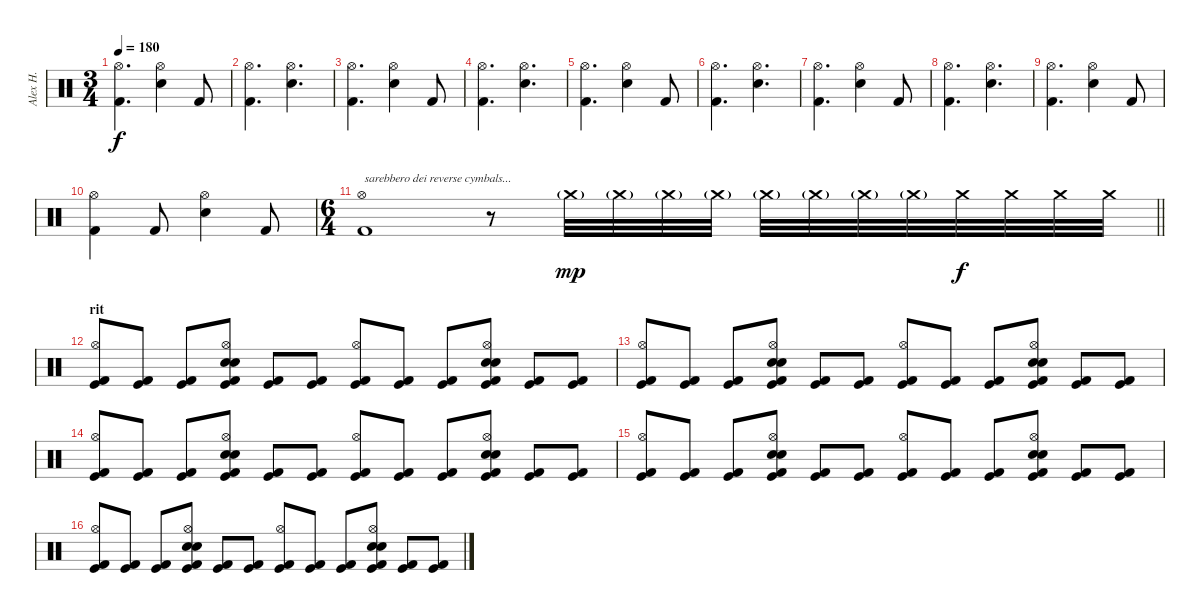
\track ("Alex H." "Alex H.") {instrument percussion}
\staff {score}
\articulation defaults
\ts (3 4)
\tempo 180
\clef neutral
\ks c
("Kick (hit) 2" "Hi-Hat (open)").4{d dy f} ("Electric Snare (hit)" "Hi-Hat (open)").4 "Kick (hit) 2".8 |
("Kick (hit) 2" "Hi-Hat (open)").4{d} ("Electric Snare (hit)" "Hi-Hat (open)").4{d} |
("Kick (hit) 2" "Hi-Hat (open)").4{d} ("Electric Snare (hit)" "Hi-Hat (open)").4 "Kick (hit) 2".8 |
("Kick (hit) 2" "Hi-Hat (open)").4{d} ("Electric Snare (hit)" "Hi-Hat (open)").4{d} |
("Kick (hit) 2" "Hi-Hat (open)").4{d} ("Electric Snare (hit)" "Hi-Hat (open)").4 "Kick (hit) 2".8 |
("Kick (hit) 2" "Hi-Hat (open)").4{d} ("Electric Snare (hit)" "Hi-Hat (open)").4{d} |
("Kick (hit) 2" "Hi-Hat (open)").4{d} ("Electric Snare (hit)" "Hi-Hat (open)").4 "Kick (hit) 2".8 |
("Kick (hit) 2" "Hi-Hat (open)").4{d} ("Electric Snare (hit)" "Hi-Hat (open)").4{d} |
("Kick (hit) 2" "Hi-Hat (open)").4{d} ("Electric Snare (hit)" "Hi-Hat (open)").4 "Kick (hit) 2".8 |
("Kick (hit) 2" "Hi-Hat (open)").4 "Kick (hit) 2".8 ("Electric Snare (hit)" "Hi-Hat (open)").4 "Kick (hit) 2".8 |
\ts (6 4)
\barLineRight lightlight
("Kick (hit) 2" "Hi-Hat (open)").1{txt "sarebbero dei reverse cymbals..."} r.8 "Crash medium (hit)"{g}.32{dy mp} "Crash medium (hit)"{g}.32 "Crash medium (hit)"{g}.32 "Crash medium (hit)"{g}.32 "Crash medium (hit)"{g}.32 "Crash medium (hit)"{g}.32 "Crash medium (hit)"{g}.32 "Crash medium (hit)"{g}.32 "Crash medium (hit)".32{dy f} "Crash medium (hit)".32 "Crash medium (hit)".32 "Crash medium (hit)".32 |
\section ("" "rit")
("Kick (hit) 2" "Kick (hit)" "Hi-Hat (open)").8 ("Kick (hit) 2" "Kick (hit)").8 ("Kick (hit) 2" "Kick (hit)").8 ("Kick (hit) 2" "Kick (hit)" "Snare (hit) 2" "Hi-Hat (open)" "Electric Snare (hit)").8 ("Kick (hit) 2" "Kick (hit)").8 ("Kick (hit) 2" "Kick (hit)").8 ("Kick (hit) 2" "Kick (hit)" "Hi-Hat (open)").8 ("Kick (hit) 2" "Kick (hit)").8 ("Kick (hit) 2" "Kick (hit)").8 ("Kick (hit) 2" "Kick (hit)" "Snare (hit) 2" "Electric Snare (hit)" "Hi-Hat (open)").8 ("Kick (hit) 2" "Kick (hit)").8 ("Kick (hit) 2" "Kick (hit)").8 |
("Kick (hit) 2" "Kick (hit)" "Hi-Hat (open)").8 ("Kick (hit) 2" "Kick (hit)").8 ("Kick (hit) 2" "Kick (hit)").8 ("Kick (hit) 2" "Kick (hit)" "Snare (hit) 2" "Hi-Hat (open)" "Electric Snare (hit)").8 ("Kick (hit) 2" "Kick (hit)").8 ("Kick (hit) 2" "Kick (hit)").8 ("Kick (hit) 2" "Kick (hit)" "Hi-Hat (open)").8 ("Kick (hit) 2" "Kick (hit)").8 ("Kick (hit) 2" "Kick (hit)").8 ("Kick (hit) 2" "Kick (hit)" "Snare (hit) 2" "Electric Snare (hit)" "Hi-Hat (open)").8 ("Kick (hit) 2" "Kick (hit)").8 ("Kick (hit) 2" "Kick (hit)").8 |
("Kick (hit) 2" "Kick (hit)" "Hi-Hat (open)").8 ("Kick (hit) 2" "Kick (hit)").8 ("Kick (hit) 2" "Kick (hit)").8 ("Kick (hit) 2" "Kick (hit)" "Snare (hit) 2" "Hi-Hat (open)" "Electric Snare (hit)").8 ("Kick (hit) 2" "Kick (hit)").8 ("Kick (hit) 2" "Kick (hit)").8 ("Kick (hit) 2" "Kick (hit)" "Hi-Hat (open)").8 ("Kick (hit) 2" "Kick (hit)").8 ("Kick (hit) 2" "Kick (hit)").8 ("Kick (hit) 2" "Kick (hit)" "Snare (hit) 2" "Electric Snare (hit)" "Hi-Hat (open)").8 ("Kick (hit) 2" "Kick (hit)").8 ("Kick (hit) 2" "Kick (hit)").8 |
("Kick (hit) 2" "Kick (hit)" "Hi-Hat (open)").8 ("Kick (hit) 2" "Kick (hit)").8 ("Kick (hit) 2" "Kick (hit)").8 ("Kick (hit) 2" "Kick (hit)" "Snare (hit) 2" "Hi-Hat (open)" "Electric Snare (hit)").8 ("Kick (hit) 2" "Kick (hit)").8 ("Kick (hit) 2" "Kick (hit)").8 ("Kick (hit) 2" "Kick (hit)" "Hi-Hat (open)").8 ("Kick (hit) 2" "Kick (hit)").8 ("Kick (hit) 2" "Kick (hit)").8 ("Kick (hit) 2" "Kick (hit)" "Snare (hit) 2" "Electric Snare (hit)" "Hi-Hat (open)").8 ("Kick (hit) 2" "Kick (hit)").8 ("Kick (hit) 2" "Kick (hit)").8 |
("Kick (hit) 2" "Kick (hit)" "Hi-Hat (open)").8 ("Kick (hit) 2" "Kick (hit)").8 ("Kick (hit) 2" "Kick (hit)").8 ("Kick (hit) 2" "Kick (hit)" "Snare (hit) 2" "Hi-Hat (open)" "Electric Snare (hit)").8 ("Kick (hit) 2" "Kick (hit)").8 ("Kick (hit) 2" "Kick (hit)").8 ("Kick (hit) 2" "Kick (hit)" "Hi-Hat (open)").8 ("Kick (hit) 2" "Kick (hit)").8 ("Kick (hit) 2" "Kick (hit)").8 ("Kick (hit) 2" "Kick (hit)" "Snare (hit) 2" "Electric Snare (hit)" "Hi-Hat (open)").8 ("Kick (hit) 2" "Kick (hit)").8 ("Kick (hit) 2" "Kick (hit)").8
